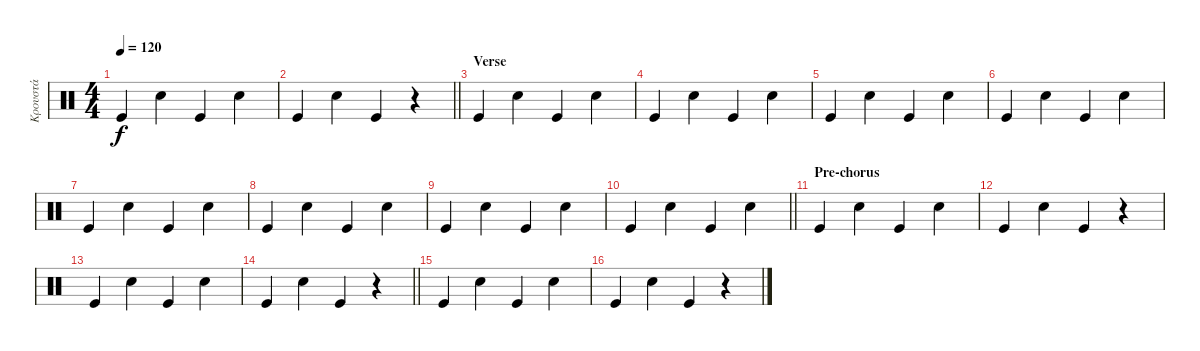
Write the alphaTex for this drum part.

\track ("Κρουστά" "Κρουστά") {instrument percussion}
\staff {score}
\articulation defaults
\ts (4 4)
\tempo 120
\clef neutral
\ks c "Kick (hit)".4{dy f} "Hand Clap (hit)".4 "Kick (hit)".4 "Hand Clap (hit)".4
|
\barLineRight lightlight "Kick (hit)".4 "Hand Clap (hit)".4 "Kick (hit)".4
r.4 |
\section ("" "Verse")
"Kick (hit)".4 "Hand Clap (hit)".4 "Kick (hit)".4 "Hand Clap (hit)".4 |
"Kick (hit)".4 "Hand Clap (hit)".4 "Kick (hit)".4 "Hand Clap (hit)".4 |
"Kick (hit)".4 "Hand Clap (hit)".4 "Kick (hit)".4 "Hand Clap (hit)".4 |
"Kick (hit)".4 "Hand Clap (hit)".4 "Kick (hit)".4 "Hand Clap (hit)".4 |
"Kick (hit)".4 "Hand Clap (hit)".4 "Kick (hit)".4 "Hand Clap (hit)".4 |
"Kick (hit)".4 "Hand Clap (hit)".4 "Kick (hit)".4 "Hand Clap (hit)".4 |
"Kick (hit)".4 "Hand Clap (hit)".4 "Kick (hit)".4 "Hand Clap (hit)".4 |
\barLineRight lightlight "Kick (hit)".4 "Hand Clap (hit)".4 "Kick (hit)".4 "Hand Clap (hit)".4
|
\section ("" "Pre-chorus")
"Kick (hit)".4 "Hand Clap (hit)".4 "Kick (hit)".4 "Hand Clap (hit)".4 |
"Kick (hit)".4 "Hand Clap (hit)".4 "Kick (hit)".4 r.4 |
"Kick (hit)".4 "Hand Clap (hit)".4 "Kick (hit)".4 "Hand Clap (hit)".4 |
\barLineRight lightlight "Kick (hit)".4 "Hand Clap (hit)".4 "Kick (hit)".4
r.4 |
"Kick (hit)".4 "Hand Clap (hit)".4 "Kick (hit)".4 "Hand Clap (hit)".4 |
"Kick (hit)".4 "Hand Clap (hit)".4 "Kick (hit)".4 r.4
